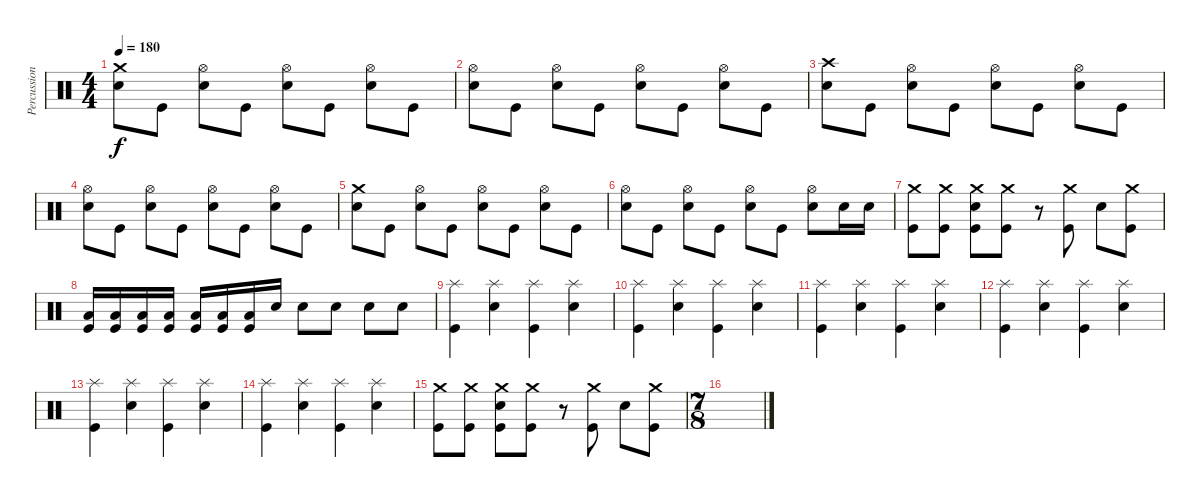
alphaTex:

\track ("Percussions" "Percussion") {instrument percussion}
\staff {score}
\articulation defaults
\ts (4 4)
\tempo 180
\clef neutral
\ks c
("Electric Snare (hit)" "Crash medium (hit)").8{dy f} "Kick (hit)".8 ("Electric Snare (hit)" "Hi-Hat (open)").8 "Kick (hit)".8 ("Electric Snare (hit)" "Hi-Hat (open)").8 "Kick (hit)".8 ("Electric Snare (hit)" "Hi-Hat (open)").8 "Kick (hit)".8 |
("Electric Snare (hit)" "Hi-Hat (open)").8 "Kick (hit)".8 ("Electric Snare (hit)" "Hi-Hat (open)").8 "Kick (hit)".8 ("Electric Snare (hit)" "Hi-Hat (open)").8 "Kick (hit)".8 ("Electric Snare (hit)" "Hi-Hat (open)").8 "Kick (hit)".8 |
("Electric Snare (hit)" "Crash high (hit)").8 "Kick (hit)".8 ("Electric Snare (hit)" "Hi-Hat (open)").8 "Kick (hit)".8 ("Electric Snare (hit)" "Hi-Hat (open)").8 "Kick (hit)".8 ("Electric Snare (hit)" "Hi-Hat (open)").8 "Kick (hit)".8 |
("Electric Snare (hit)" "Hi-Hat (open)").8 "Kick (hit)".8 ("Electric Snare (hit)" "Hi-Hat (open)").8 "Kick (hit)".8 ("Electric Snare (hit)" "Hi-Hat (open)").8 "Kick (hit)".8 ("Electric Snare (hit)" "Hi-Hat (open)").8 "Kick (hit)".8 |
("Electric Snare (hit)" "Crash medium (hit)").8 "Kick (hit)".8 ("Electric Snare (hit)" "Hi-Hat (open)").8 "Kick (hit)".8 ("Electric Snare (hit)" "Hi-Hat (open)").8 "Kick (hit)".8 ("Electric Snare (hit)" "Hi-Hat (open)").8 "Kick (hit)".8 |
("Electric Snare (hit)" "Hi-Hat (open)").8 "Kick (hit)".8 ("Electric Snare (hit)" "Hi-Hat (open)").8 "Kick (hit)".8 ("Electric Snare (hit)" "Hi-Hat (open)").8 "Kick (hit)".8 ("Electric Snare (hit)" "Hi-Hat (open)").8 "Electric Snare (hit)".16 "Electric Snare (hit)".16 |
("Kick (hit)" "Crash medium (hit)").8 ("Kick (hit)" "Crash medium (hit)").8 ("Kick (hit)" "Electric Snare (hit)" "Crash medium (hit)").8 ("Kick (hit)" "Crash medium (hit)").8 r.8 ("Kick (hit)" "Crash medium (hit)").8 "Electric Snare (hit)".8 ("Kick (hit)" "Crash medium (hit)").8 |
("Kick (hit)" "Low Tom (hit)").16 ("Kick (hit)" "Low Tom (hit)").16 ("Kick (hit)" "Low Tom (hit)").16 ("Kick (hit)" "Low Tom (hit)").16 ("Kick (hit)" "Low Tom (hit)").16 ("Kick (hit)" "Low Tom (hit)").16 ("Kick (hit)" "Low Tom (hit)").16 "Electric Snare (hit)".16 "Electric Snare (hit)".8 "Electric Snare (hit)".8 "Electric Snare (hit)".8 "Electric Snare (hit)".8 |
("Kick (hit)" "Splash (hit)").4 ("Electric Snare (hit)" "Splash (hit)").4 ("Kick (hit)" "Splash (hit)").4 ("Electric Snare (hit)" "Splash (hit)").4 |
("Kick (hit)" "Splash (hit)").4 ("Electric Snare (hit)" "Splash (hit)").4 ("Kick (hit)" "Splash (hit)").4 ("Electric Snare (hit)" "Splash (hit)").4 |
("Kick (hit)" "Splash (hit)").4 ("Electric Snare (hit)" "Splash (hit)").4 ("Kick (hit)" "Splash (hit)").4 ("Electric Snare (hit)" "Splash (hit)").4 |
("Kick (hit)" "Splash (hit)").4 ("Electric Snare (hit)" "Splash (hit)").4 ("Kick (hit)" "Splash (hit)").4 ("Electric Snare (hit)" "Splash (hit)").4 |
("Kick (hit)" "Splash (hit)").4 ("Electric Snare (hit)" "Splash (hit)").4 ("Kick (hit)" "Splash (hit)").4 ("Electric Snare (hit)" "Splash (hit)").4 |
("Kick (hit)" "Splash (hit)").4 ("Electric Snare (hit)" "Splash (hit)").4 ("Kick (hit)" "Splash (hit)").4 ("Electric Snare (hit)" "Splash (hit)").4 |
("Kick (hit)" "Crash medium (hit)").8 ("Kick (hit)" "Crash medium (hit)").8 ("Kick (hit)" "Electric Snare (hit)" "Crash medium (hit)").8 ("Kick (hit)" "Crash medium (hit)").8 r.8 ("Kick (hit)" "Crash medium (hit)").8 "Electric Snare (hit)".8 ("Kick (hit)" "Crash medium (hit)").8 |
\ts (7 8)
